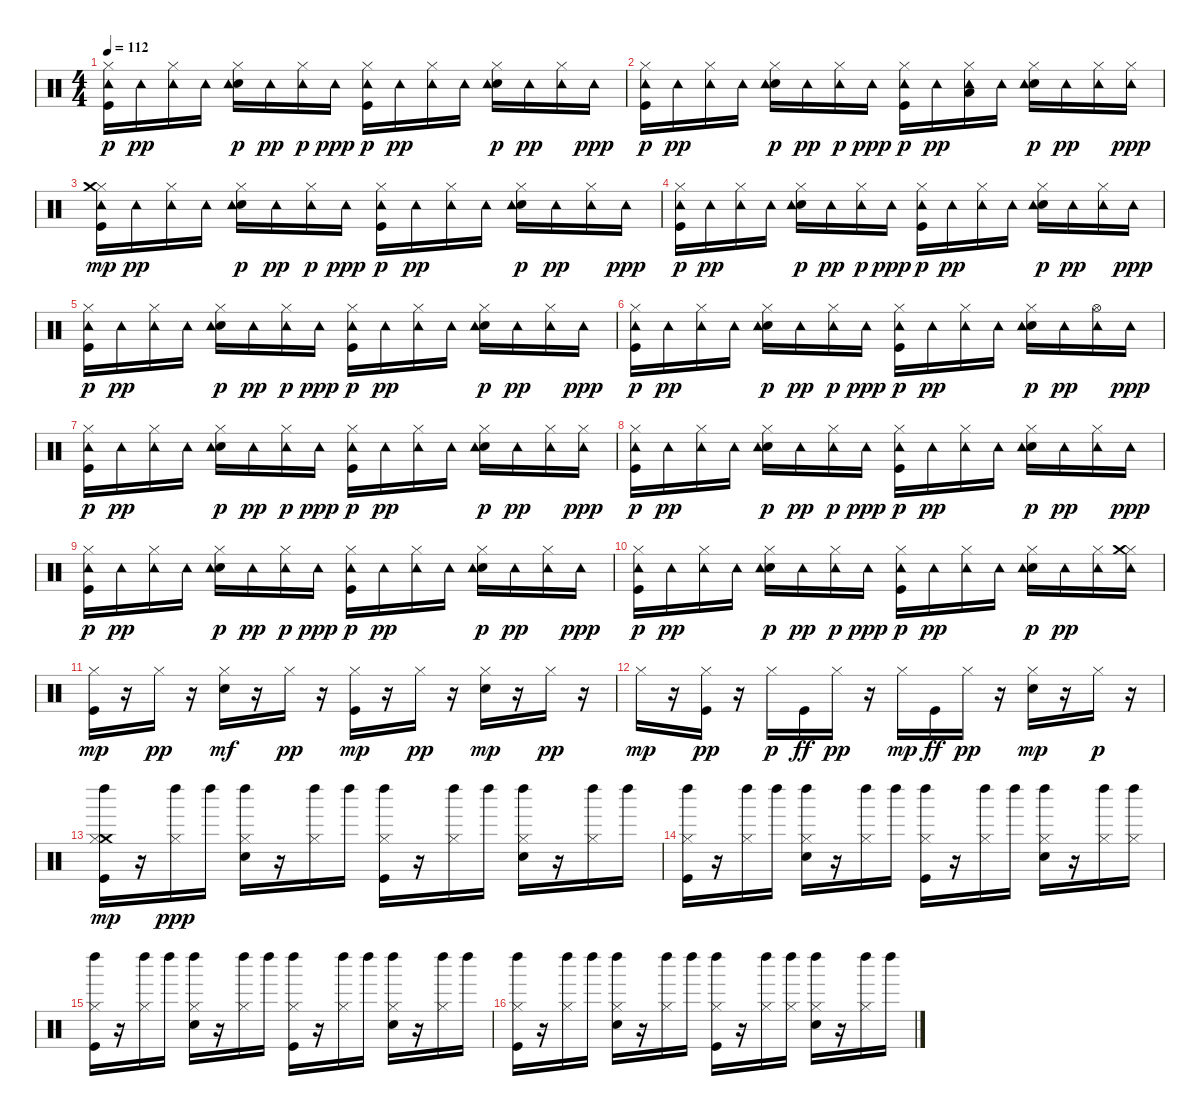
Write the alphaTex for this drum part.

\track "" {instrument percussion}
\staff {score}
\articulation defaults
\ts (4 4)
\tempo 112
\clef neutral
\ks c
("Kick (hit)" "Hi-Hat (closed)" "Tambourine (hit)").16{dy p} "Tambourine (hit)".16{dy pp} ("Hi-Hat (closed)" "Tambourine (hit)").16 "Tambourine (hit)".16 ("Electric Snare (hit)" "Hi-Hat (closed)" "Tambourine (hit)").16{dy p} "Tambourine (hit)".16{dy pp} ("Hi-Hat (closed)" "Tambourine (hit)").16{dy p} "Tambourine (hit)".16{dy ppp} ("Kick (hit)" "Hi-Hat (closed)" "Tambourine (hit)").16{dy p} "Tambourine (hit)".16{dy pp} ("Hi-Hat (closed)" "Tambourine (hit)").16 "Tambourine (hit)".16 ("Electric Snare (hit)" "Hi-Hat (closed)" "Tambourine (hit)").16{dy p} "Tambourine (hit)".16{dy pp} ("Hi-Hat (closed)" "Tambourine (hit)").16 "Tambourine (hit)".16{dy ppp} |
("Kick (hit)" "Hi-Hat (closed)" "Tambourine (hit)").16{dy p} "Tambourine (hit)".16{dy pp} ("Hi-Hat (closed)" "Tambourine (hit)").16 "Tambourine (hit)".16 ("Electric Snare (hit)" "Hi-Hat (closed)" "Tambourine (hit)").16{dy p} "Tambourine (hit)".16{dy pp} ("Hi-Hat (closed)" "Tambourine (hit)").16{dy p} "Tambourine (hit)".16{dy ppp} ("Kick (hit)" "Hi-Hat (closed)" "Tambourine (hit)").16{dy p} "Tambourine (hit)".16{dy pp} ("Hi-Hat (closed)" "Low Tom (hit)" "Tambourine (hit)").16 "Tambourine (hit)".16 ("Electric Snare (hit)" "Hi-Hat (closed)" "Tambourine (hit)").16{dy p} "Tambourine (hit)".16{dy pp} ("Hi-Hat (closed)" "Tambourine (hit)").16 ("Hi-Hat (closed)" "Tambourine (hit)").16{dy ppp} |
("Kick (hit)" "Hi-Hat (closed)" "Tambourine (hit)" "Crash medium (hit)").16{dy mp} "Tambourine (hit)".16{dy pp} ("Hi-Hat (closed)" "Tambourine (hit)").16 "Tambourine (hit)".16 ("Electric Snare (hit)" "Hi-Hat (closed)" "Tambourine (hit)").16{dy p} "Tambourine (hit)".16{dy pp} ("Hi-Hat (closed)" "Tambourine (hit)").16{dy p} "Tambourine (hit)".16{dy ppp} ("Kick (hit)" "Hi-Hat (closed)" "Tambourine (hit)").16{dy p} "Tambourine (hit)".16{dy pp} ("Hi-Hat (closed)" "Tambourine (hit)").16 "Tambourine (hit)".16 ("Electric Snare (hit)" "Hi-Hat (closed)" "Tambourine (hit)").16{dy p} "Tambourine (hit)".16{dy pp} ("Hi-Hat (closed)" "Tambourine (hit)").16 "Tambourine (hit)".16{dy ppp} |
("Kick (hit)" "Hi-Hat (closed)" "Tambourine (hit)").16{dy p} "Tambourine (hit)".16{dy pp} ("Hi-Hat (closed)" "Tambourine (hit)").16 "Tambourine (hit)".16 ("Electric Snare (hit)" "Hi-Hat (closed)" "Tambourine (hit)").16{dy p} "Tambourine (hit)".16{dy pp} ("Hi-Hat (closed)" "Tambourine (hit)").16{dy p} "Tambourine (hit)".16{dy ppp} ("Kick (hit)" "Hi-Hat (closed)" "Tambourine (hit)").16{dy p} "Tambourine (hit)".16{dy pp} ("Hi-Hat (closed)" "Tambourine (hit)").16 "Tambourine (hit)".16 ("Electric Snare (hit)" "Hi-Hat (closed)" "Tambourine (hit)").16{dy p} "Tambourine (hit)".16{dy pp} ("Hi-Hat (closed)" "Tambourine (hit)").16 "Tambourine (hit)".16{dy ppp} |
("Kick (hit)" "Hi-Hat (closed)" "Tambourine (hit)").16{dy p} "Tambourine (hit)".16{dy pp} ("Hi-Hat (closed)" "Tambourine (hit)").16 "Tambourine (hit)".16 ("Electric Snare (hit)" "Hi-Hat (closed)" "Tambourine (hit)").16{dy p} "Tambourine (hit)".16{dy pp} ("Hi-Hat (closed)" "Tambourine (hit)").16{dy p} "Tambourine (hit)".16{dy ppp} ("Kick (hit)" "Hi-Hat (closed)" "Tambourine (hit)").16{dy p} "Tambourine (hit)".16{dy pp} ("Hi-Hat (closed)" "Tambourine (hit)").16 "Tambourine (hit)".16 ("Electric Snare (hit)" "Hi-Hat (closed)" "Tambourine (hit)").16{dy p} "Tambourine (hit)".16{dy pp} ("Hi-Hat (closed)" "Tambourine (hit)").16 "Tambourine (hit)".16{dy ppp} |
("Kick (hit)" "Hi-Hat (closed)" "Tambourine (hit)").16{dy p} "Tambourine (hit)".16{dy pp} ("Hi-Hat (closed)" "Tambourine (hit)").16 "Tambourine (hit)".16 ("Electric Snare (hit)" "Hi-Hat (closed)" "Tambourine (hit)").16{dy p} "Tambourine (hit)".16{dy pp} ("Hi-Hat (closed)" "Tambourine (hit)").16{dy p} "Tambourine (hit)".16{dy ppp} ("Kick (hit)" "Hi-Hat (closed)" "Tambourine (hit)").16{dy p} "Tambourine (hit)".16{dy pp} ("Hi-Hat (closed)" "Tambourine (hit)").16 "Tambourine (hit)".16 ("Electric Snare (hit)" "Hi-Hat (closed)" "Tambourine (hit)").16{dy p} "Tambourine (hit)".16{dy pp} ("Hi-Hat (open)" "Tambourine (hit)").16 "Tambourine (hit)".16{dy ppp} |
("Kick (hit)" "Hi-Hat (closed)" "Tambourine (hit)").16{dy p} "Tambourine (hit)".16{dy pp} ("Hi-Hat (closed)" "Tambourine (hit)").16 "Tambourine (hit)".16 ("Electric Snare (hit)" "Hi-Hat (closed)" "Tambourine (hit)").16{dy p} "Tambourine (hit)".16{dy pp} ("Hi-Hat (closed)" "Tambourine (hit)").16{dy p} "Tambourine (hit)".16{dy ppp} ("Kick (hit)" "Hi-Hat (closed)" "Tambourine (hit)").16{dy p} "Tambourine (hit)".16{dy pp} ("Hi-Hat (closed)" "Tambourine (hit)").16 "Tambourine (hit)".16 ("Electric Snare (hit)" "Hi-Hat (closed)" "Tambourine (hit)").16{dy p} "Tambourine (hit)".16{dy pp} ("Hi-Hat (closed)" "Tambourine (hit)").16 ("Hi-Hat (closed)" "Tambourine (hit)").16{dy ppp} |
("Kick (hit)" "Hi-Hat (closed)" "Tambourine (hit)").16{dy p} "Tambourine (hit)".16{dy pp} ("Hi-Hat (closed)" "Tambourine (hit)").16 "Tambourine (hit)".16 ("Electric Snare (hit)" "Hi-Hat (closed)" "Tambourine (hit)").16{dy p} "Tambourine (hit)".16{dy pp} ("Hi-Hat (closed)" "Tambourine (hit)").16{dy p} "Tambourine (hit)".16{dy ppp} ("Kick (hit)" "Hi-Hat (closed)" "Tambourine (hit)").16{dy p} "Tambourine (hit)".16{dy pp} ("Hi-Hat (closed)" "Tambourine (hit)").16 "Tambourine (hit)".16 ("Electric Snare (hit)" "Hi-Hat (closed)" "Tambourine (hit)").16{dy p} "Tambourine (hit)".16{dy pp} ("Hi-Hat (closed)" "Tambourine (hit)").16 "Tambourine (hit)".16{dy ppp} |
("Kick (hit)" "Hi-Hat (closed)" "Tambourine (hit)").16{dy p} "Tambourine (hit)".16{dy pp} ("Hi-Hat (closed)" "Tambourine (hit)").16 "Tambourine (hit)".16 ("Electric Snare (hit)" "Hi-Hat (closed)" "Tambourine (hit)").16{dy p} "Tambourine (hit)".16{dy pp} ("Hi-Hat (closed)" "Tambourine (hit)").16{dy p} "Tambourine (hit)".16{dy ppp} ("Kick (hit)" "Hi-Hat (closed)" "Tambourine (hit)").16{dy p} "Tambourine (hit)".16{dy pp} ("Hi-Hat (closed)" "Tambourine (hit)").16 "Tambourine (hit)".16 ("Electric Snare (hit)" "Hi-Hat (closed)" "Tambourine (hit)").16{dy p} "Tambourine (hit)".16{dy pp} ("Hi-Hat (closed)" "Tambourine (hit)").16 "Tambourine (hit)".16{dy ppp} |
("Kick (hit)" "Hi-Hat (closed)" "Tambourine (hit)").16{dy p} "Tambourine (hit)".16{dy pp} ("Hi-Hat (closed)" "Tambourine (hit)").16 "Tambourine (hit)".16 ("Electric Snare (hit)" "Hi-Hat (closed)" "Tambourine (hit)").16{dy p} "Tambourine (hit)".16{dy pp} ("Hi-Hat (closed)" "Tambourine (hit)").16{dy p} "Tambourine (hit)".16{dy ppp} ("Kick (hit)" "Hi-Hat (closed)" "Tambourine (hit)").16{dy p} "Tambourine (hit)".16{dy pp} ("Hi-Hat (closed)" "Tambourine (hit)").16 "Tambourine (hit)".16 ("Electric Snare (hit)" "Hi-Hat (closed)" "Tambourine (hit)").16{dy p} "Tambourine (hit)".16{dy pp} ("Hi-Hat (closed)" "Tambourine (hit)").16 ("Hi-Hat (closed)" "Tambourine (hit)" "Crash medium (hit)").16 |
("Kick (hit)" "Hi-Hat (closed)").16{dy mp} r.16 "Hi-Hat (closed)".16{dy pp} r.16 ("Electric Snare (hit)" "Hi-Hat (closed)").16{dy mf} r.16 "Hi-Hat (closed)".16{dy pp} r.16 ("Kick (hit)" "Hi-Hat (closed)").16{dy mp} r.16 "Hi-Hat (closed)".16{dy pp} r.16 ("Electric Snare (hit)" "Hi-Hat (closed)").16{dy mp} r.16 "Hi-Hat (closed)".16{dy pp} r.16 |
"Hi-Hat (closed)".16{dy mp} r.16 ("Kick (hit)" "Hi-Hat (closed)").16{dy pp} r.16 "Hi-Hat (closed)".16{dy p} "Kick (hit)".16{dy ff} "Hi-Hat (closed)".16{dy pp} r.16 "Hi-Hat (closed)".16{dy mp} "Kick (hit)".16{dy ff} "Hi-Hat (closed)".16{dy pp} r.16 ("Electric Snare (hit)" "Hi-Hat (closed)").16{dy mp} r.16 "Hi-Hat (closed)".16{dy p} r.16 |
("Kick (hit)" "Crash medium (hit)" "Left Maraca (hit)" "Hi-Hat (closed)").16{dy mp} r.16 ("Hi-Hat (closed)" "Left Maraca (hit)").16{dy ppp} "Left Maraca (hit)".16 ("Electric Snare (hit)" "Hi-Hat (closed)" "Left Maraca (hit)").16 r.16 ("Hi-Hat (closed)" "Left Maraca (hit)").16 "Left Maraca (hit)".16 ("Kick (hit)" "Hi-Hat (closed)" "Left Maraca (hit)").16 r.16 ("Hi-Hat (closed)" "Left Maraca (hit)").16 "Left Maraca (hit)".16 ("Electric Snare (hit)" "Hi-Hat (closed)" "Left Maraca (hit)").16 r.16 ("Hi-Hat (closed)" "Left Maraca (hit)").16 "Left Maraca (hit)".16 |
("Kick (hit)" "Hi-Hat (closed)" "Left Maraca (hit)").16 r.16 ("Hi-Hat (closed)" "Left Maraca (hit)").16 "Left Maraca (hit)".16 ("Electric Snare (hit)" "Hi-Hat (closed)" "Left Maraca (hit)").16 r.16 ("Hi-Hat (closed)" "Left Maraca (hit)").16 "Left Maraca (hit)".16 ("Kick (hit)" "Hi-Hat (closed)" "Left Maraca (hit)").16 r.16 ("Hi-Hat (closed)" "Left Maraca (hit)").16 "Left Maraca (hit)".16 ("Electric Snare (hit)" "Hi-Hat (closed)" "Left Maraca (hit)").16 r.16 ("Hi-Hat (closed)" "Left Maraca (hit)").16 ("Hi-Hat (closed)" "Left Maraca (hit)").16 |
("Kick (hit)" "Hi-Hat (closed)" "Left Maraca (hit)").16 r.16 ("Hi-Hat (closed)" "Left Maraca (hit)").16 "Left Maraca (hit)".16 ("Electric Snare (hit)" "Hi-Hat (closed)" "Left Maraca (hit)").16 r.16 ("Hi-Hat (closed)" "Left Maraca (hit)").16 "Left Maraca (hit)".16 ("Kick (hit)" "Hi-Hat (closed)" "Left Maraca (hit)").16 r.16 ("Hi-Hat (closed)" "Left Maraca (hit)").16 "Left Maraca (hit)".16 ("Electric Snare (hit)" "Hi-Hat (closed)" "Left Maraca (hit)").16 r.16 ("Hi-Hat (closed)" "Left Maraca (hit)").16 "Left Maraca (hit)".16 |
("Kick (hit)" "Hi-Hat (closed)" "Left Maraca (hit)").16 r.16 ("Hi-Hat (closed)" "Left Maraca (hit)").16 "Left Maraca (hit)".16 ("Electric Snare (hit)" "Hi-Hat (closed)" "Left Maraca (hit)").16 r.16 ("Hi-Hat (closed)" "Left Maraca (hit)").16 "Left Maraca (hit)".16 ("Kick (hit)" "Hi-Hat (closed)" "Left Maraca (hit)").16 r.16 ("Hi-Hat (closed)" "Left Maraca (hit)").16 ("Hi-Hat (closed)" "Left Maraca (hit)").16 ("Electric Snare (hit)" "Hi-Hat (closed)" "Left Maraca (hit)").16 r.16 ("Hi-Hat (closed)" "Left Maraca (hit)").16 "Left Maraca (hit)".16
